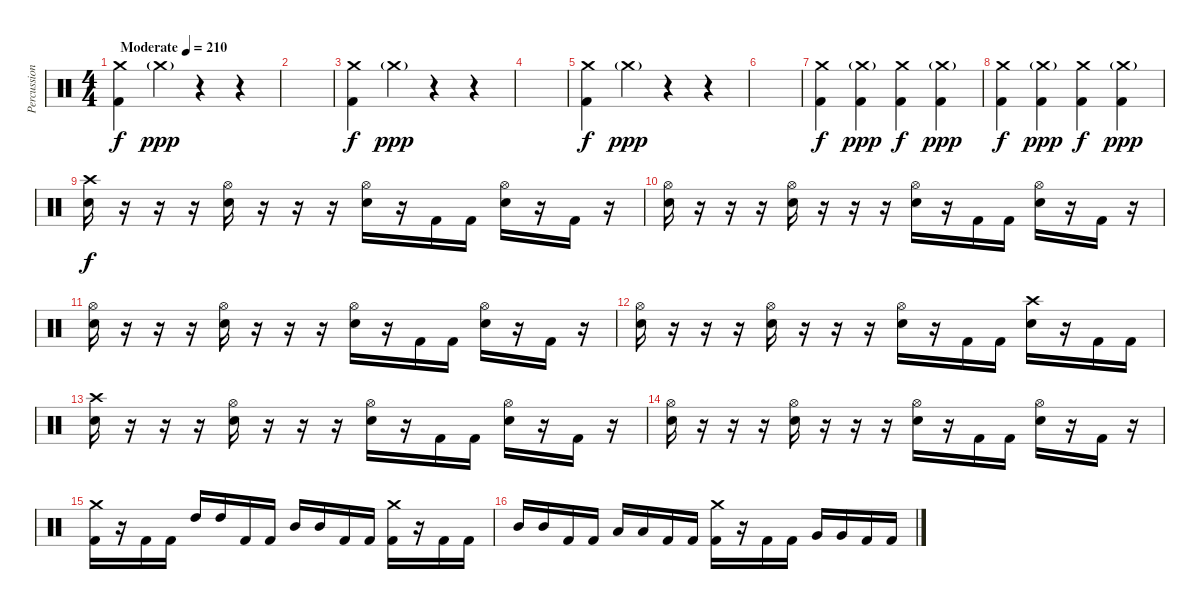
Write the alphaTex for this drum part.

\track ("Percussion" "Percussion") {instrument percussion}
\staff {score}
\articulation defaults
\ts (4 4)
\tempo (210 "Moderate")
\clef neutral
\ks c
("Crash medium (hit)" "Kick (hit) 2").4{dy f} "Crash medium (hit)"{g}.4{dy ppp} r.4 r.4 |
|
("Crash medium (hit)" "Kick (hit) 2").4{dy f} "Crash medium (hit)"{g}.4{dy ppp} r.4 r.4 |
|
("Crash medium (hit)" "Kick (hit) 2").4{dy f} "Crash medium (hit)"{g}.4{dy ppp} r.4 r.4 |
|
("Crash medium (hit)" "Kick (hit) 2").4{dy f} ("Crash medium (hit)"{g} "Kick (hit) 2").4{dy ppp} ("Crash medium (hit)" "Kick (hit) 2").4{dy f} ("Crash medium (hit)"{g} "Kick (hit) 2").4{dy ppp} |
("Crash medium (hit)" "Kick (hit) 2").4{dy f} ("Crash medium (hit)"{g} "Kick (hit) 2").4{dy ppp} ("Crash medium (hit)" "Kick (hit) 2").4{dy f} ("Crash medium (hit)"{g} "Kick (hit) 2").4{dy ppp} |
("Crash high (hit)" "Snare (hit) 2").16{dy f} r.16 r.16 r.16 ("Hi-Hat (open)" "Snare (hit) 2").16 r.16 r.16 r.16 ("Hi-Hat (open)" "Snare (hit) 2").16 r.16 "Kick (hit) 2".16 "Kick (hit) 2".16 ("Hi-Hat (open)" "Snare (hit) 2").16 r.16 "Kick (hit) 2".16 r.16 |
("Hi-Hat (open)" "Snare (hit) 2").16 r.16 r.16 r.16 ("Hi-Hat (open)" "Snare (hit) 2").16 r.16 r.16 r.16 ("Hi-Hat (open)" "Snare (hit) 2").16 r.16 "Kick (hit) 2".16 "Kick (hit) 2".16 ("Hi-Hat (open)" "Snare (hit) 2").16 r.16 "Kick (hit) 2".16 r.16 |
("Hi-Hat (open)" "Snare (hit) 2").16 r.16 r.16 r.16 ("Hi-Hat (open)" "Snare (hit) 2").16 r.16 r.16 r.16 ("Hi-Hat (open)" "Snare (hit) 2").16 r.16 "Kick (hit) 2".16 "Kick (hit) 2".16 ("Hi-Hat (open)" "Snare (hit) 2").16 r.16 "Kick (hit) 2".16 r.16 |
("Hi-Hat (open)" "Snare (hit) 2").16 r.16 r.16 r.16 ("Hi-Hat (open)" "Snare (hit) 2").16 r.16 r.16 r.16 ("Hi-Hat (open)" "Snare (hit) 2").16 r.16 "Kick (hit) 2".16 "Kick (hit) 2".16 ("Crash high (hit)" "Snare (hit) 2").16 r.16 "Kick (hit) 2".16 "Kick (hit) 2".16 |
("Crash high (hit)" "Snare (hit) 2").16 r.16 r.16 r.16 ("Hi-Hat (open)" "Snare (hit) 2").16 r.16 r.16 r.16 ("Hi-Hat (open)" "Snare (hit) 2").16 r.16 "Kick (hit) 2".16 "Kick (hit) 2".16 ("Hi-Hat (open)" "Snare (hit) 2").16 r.16 "Kick (hit) 2".16 r.16 |
("Hi-Hat (open)" "Snare (hit) 2").16 r.16 r.16 r.16 ("Hi-Hat (open)" "Snare (hit) 2").16 r.16 r.16 r.16 ("Hi-Hat (open)" "Snare (hit) 2").16 r.16 "Kick (hit) 2".16 "Kick (hit) 2".16 ("Hi-Hat (open)" "Snare (hit) 2").16 r.16 "Kick (hit) 2".16 r.16 |
("Crash medium (hit)" "Kick (hit) 2").16 r.16 "Kick (hit) 2".16 "Kick (hit) 2".16 "High Tom (hit)".16 "High Tom (hit)".16 "Kick (hit) 2".16 "Kick (hit) 2".16 "Mid Tom (hit)".16 "Mid Tom (hit)".16 "Kick (hit) 2".16 "Kick (hit) 2".16 ("Crash medium (hit)" "Kick (hit) 2").16 r.16 "Kick (hit) 2".16 "Kick (hit) 2".16 |
"Mid Tom (hit)".16 "Mid Tom (hit)".16 "Kick (hit) 2".16 "Kick (hit) 2".16 "Low Tom (hit)".16 "Low Tom (hit)".16 "Kick (hit) 2".16 "Kick (hit) 2".16 ("Crash medium (hit)" "Kick (hit) 2").16 r.16 "Kick (hit) 2".16 "Kick (hit) 2".16 "Very Low Tom (hit)".16 "Very Low Tom (hit)".16 "Kick (hit) 2".16 "Kick (hit) 2".16
